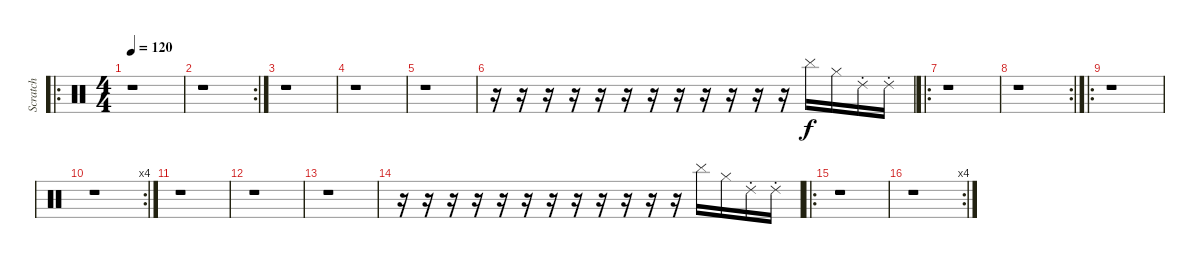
\track ("Scratch" "Scratch") {instrument percussion}
\staff {score}
\articulation defaults
\ro
\ts (4 4)
\tempo 120
\clef neutral
\ks c
r.1{dy f} |
\rc 2
r.1 |
r.1 |
r.1 |
r.1 |
r.16 r.16 r.16 r.16 r.16 r.16 r.16 r.16 r.16 r.16 r.16 r.16 "Cymbal (hit)".16 "Hi-Hat (closed)".16 "Ride (choke) 2".16 "Ride (choke) 2".16 |
\ro
r.1 |
\rc 2
r.1 |
\ro
r.1 |
\rc 4
r.1 |
r.1 |
r.1 |
r.1 |
r.16 r.16 r.16 r.16 r.16 r.16 r.16 r.16 r.16 r.16 r.16 r.16 "Cymbal (hit)".16 "Hi-Hat (closed)".16 "Ride (choke) 2".16 "Ride (choke) 2".16 |
\ro
r.1 |
\rc 4
r.1
